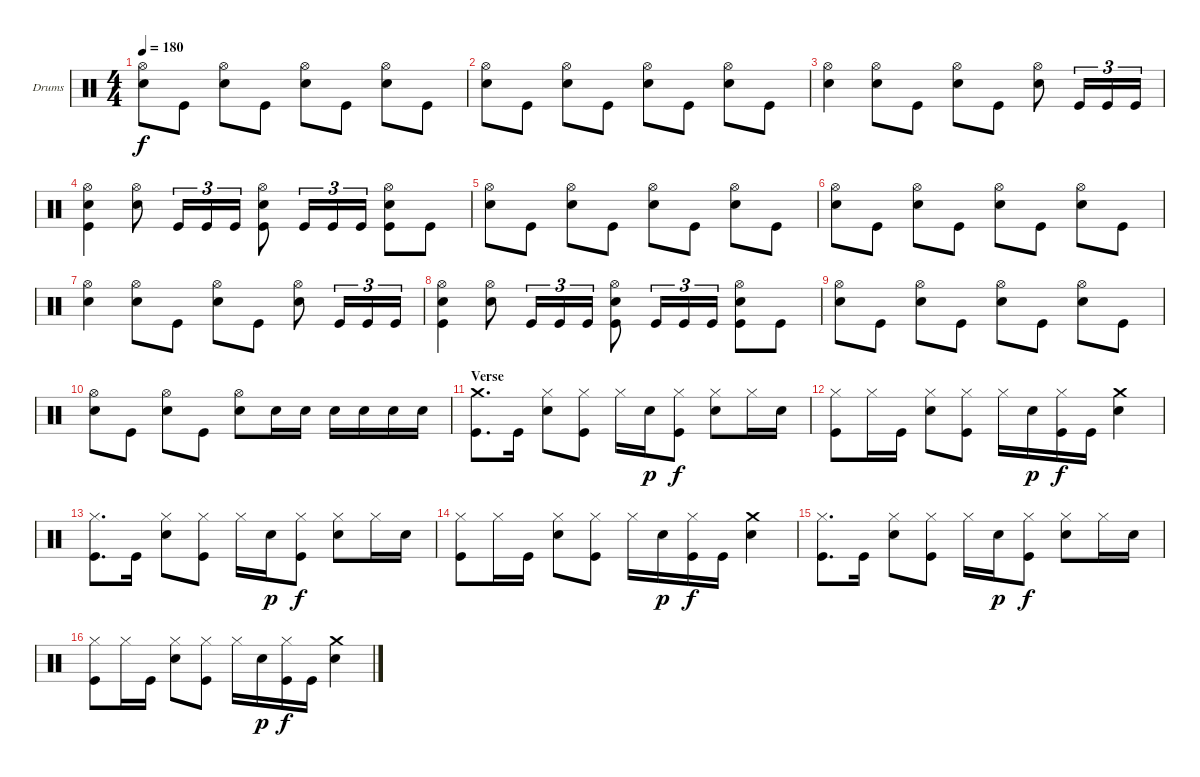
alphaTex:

\bracketExtendMode groupsimilarinstruments
\firstSystemTrackNameOrientation horizontal
\otherSystemsTrackNameOrientation horizontal
\track ("Drumkit" "Drums") {instrument percussion}
\staff {score}
\articulation defaults
\ts (4 4)
\tempo 180
\clef neutral
\ks c
("Hi-Hat (open)" "Snare (hit) 2").8{dy f} "Kick (hit)".8 ("Hi-Hat (open)" "Snare (hit) 2").8 "Kick (hit)".8 ("Hi-Hat (open)" "Snare (hit) 2").8 "Kick (hit)".8 ("Hi-Hat (open)" "Snare (hit) 2").8 "Kick (hit)".8 |
("Hi-Hat (open)" "Snare (hit) 2").8 "Kick (hit)".8 ("Hi-Hat (open)" "Snare (hit) 2").8 "Kick (hit)".8 ("Hi-Hat (open)" "Snare (hit) 2").8 "Kick (hit)".8 ("Hi-Hat (open)" "Snare (hit) 2").8 "Kick (hit)".8 |
("Hi-Hat (open)" "Snare (hit) 2").4 ("Hi-Hat (open)" "Snare (hit) 2").8 "Kick (hit)".8 ("Hi-Hat (open)" "Snare (hit) 2").8 "Kick (hit)".8 ("Hi-Hat (open)" "Snare (hit) 2").8 "Kick (hit)".16{tu (3 2)} "Kick (hit)".16{tu (3 2)} "Kick (hit)".16{tu (3 2)} |
("Hi-Hat (open)" "Snare (hit) 2" "Kick (hit)").4 ("Hi-Hat (open)" "Snare (hit) 2").8 "Kick (hit)".16{tu (3 2)} "Kick (hit)".16{tu (3 2)} "Kick (hit)".16{tu (3 2)} ("Hi-Hat (open)" "Snare (hit) 2" "Kick (hit)").8 "Kick (hit)".16{tu (3 2)} "Kick (hit)".16{tu (3 2)} "Kick (hit)".16{tu (3 2)} ("Hi-Hat (open)" "Snare (hit) 2" "Kick (hit)").8 "Kick (hit)".8 |
("Hi-Hat (open)" "Snare (hit) 2").8 "Kick (hit)".8 ("Hi-Hat (open)" "Snare (hit) 2").8 "Kick (hit)".8 ("Hi-Hat (open)" "Snare (hit) 2").8 "Kick (hit)".8 ("Hi-Hat (open)" "Snare (hit) 2").8 "Kick (hit)".8 |
("Hi-Hat (open)" "Snare (hit) 2").8 "Kick (hit)".8 ("Hi-Hat (open)" "Snare (hit) 2").8 "Kick (hit)".8 ("Hi-Hat (open)" "Snare (hit) 2").8 "Kick (hit)".8 ("Hi-Hat (open)" "Snare (hit) 2").8 "Kick (hit)".8 |
("Hi-Hat (open)" "Snare (hit) 2").4 ("Hi-Hat (open)" "Snare (hit) 2").8 "Kick (hit)".8 ("Hi-Hat (open)" "Snare (hit) 2").8 "Kick (hit)".8 ("Hi-Hat (open)" "Snare (hit) 2").8 "Kick (hit)".16{tu (3 2)} "Kick (hit)".16{tu (3 2)} "Kick (hit)".16{tu (3 2)} |
("Hi-Hat (open)" "Snare (hit) 2" "Kick (hit)").4 ("Hi-Hat (open)" "Snare (hit) 2").8 "Kick (hit)".16{tu (3 2)} "Kick (hit)".16{tu (3 2)} "Kick (hit)".16{tu (3 2)} ("Hi-Hat (open)" "Snare (hit) 2" "Kick (hit)").8 "Kick (hit)".16{tu (3 2)} "Kick (hit)".16{tu (3 2)} "Kick (hit)".16{tu (3 2)} ("Hi-Hat (open)" "Snare (hit) 2" "Kick (hit)").8 "Kick (hit)".8 |
("Hi-Hat (open)" "Snare (hit) 2").8 "Kick (hit)".8 ("Hi-Hat (open)" "Snare (hit) 2").8 "Kick (hit)".8 ("Hi-Hat (open)" "Snare (hit) 2").8 "Kick (hit)".8 ("Hi-Hat (open)" "Snare (hit) 2").8 "Kick (hit)".8 |
("Hi-Hat (open)" "Snare (hit) 2").8 "Kick (hit)".8 ("Hi-Hat (open)" "Snare (hit) 2").8 "Kick (hit)".8 ("Hi-Hat (open)" "Snare (hit) 2").8 "Snare (hit) 2".16 "Snare (hit) 2".16 "Snare (hit) 2".16 "Snare (hit) 2".16 "Snare (hit) 2".16 "Snare (hit) 2".16 |
\section ("" "Verse")
("Crash medium (hit)" "Kick (hit)").8{d} "Kick (hit)".16 ("Hi-Hat (closed)" "Snare (hit) 2").8 ("Hi-Hat (closed)" "Kick (hit)").8 "Hi-Hat (closed)".16 "Snare (hit) 2".16{dy p} ("Hi-Hat (closed)" "Kick (hit)").8{dy f} ("Hi-Hat (closed)" "Snare (hit) 2").8 "Hi-Hat (closed)".16 "Snare (hit) 2".16 |
("Hi-Hat (closed)" "Kick (hit)").8 "Hi-Hat (closed)".16 "Kick (hit)".16 ("Hi-Hat (closed)" "Snare (hit) 2").8 ("Hi-Hat (closed)" "Kick (hit)").8 "Hi-Hat (closed)".16 "Snare (hit) 2".16{dy p} ("Hi-Hat (closed)" "Kick (hit)").16{dy f} "Kick (hit)".16 ("Crash medium (hit)" "Snare (hit) 2").4 |
("Hi-Hat (closed)" "Kick (hit)").8{d} "Kick (hit)".16 ("Hi-Hat (closed)" "Snare (hit) 2").8 ("Hi-Hat (closed)" "Kick (hit)").8 "Hi-Hat (closed)".16 "Snare (hit) 2".16{dy p} ("Hi-Hat (closed)" "Kick (hit)").8{dy f} ("Hi-Hat (closed)" "Snare (hit) 2").8 "Hi-Hat (closed)".16 "Snare (hit) 2".16 |
("Hi-Hat (closed)" "Kick (hit)").8 "Hi-Hat (closed)".16 "Kick (hit)".16 ("Hi-Hat (closed)" "Snare (hit) 2").8 ("Hi-Hat (closed)" "Kick (hit)").8 "Hi-Hat (closed)".16 "Snare (hit) 2".16{dy p} ("Hi-Hat (closed)" "Kick (hit)").16{dy f} "Kick (hit)".16 ("Crash medium (hit)" "Snare (hit) 2").4 |
("Hi-Hat (closed)" "Kick (hit)").8{d} "Kick (hit)".16 ("Hi-Hat (closed)" "Snare (hit) 2").8 ("Hi-Hat (closed)" "Kick (hit)").8 "Hi-Hat (closed)".16 "Snare (hit) 2".16{dy p} ("Hi-Hat (closed)" "Kick (hit)").8{dy f} ("Hi-Hat (closed)" "Snare (hit) 2").8 "Hi-Hat (closed)".16 "Snare (hit) 2".16 |
("Hi-Hat (closed)" "Kick (hit)").8 "Hi-Hat (closed)".16 "Kick (hit)".16 ("Hi-Hat (closed)" "Snare (hit) 2").8 ("Hi-Hat (closed)" "Kick (hit)").8 "Hi-Hat (closed)".16 "Snare (hit) 2".16{dy p} ("Hi-Hat (closed)" "Kick (hit)").16{dy f} "Kick (hit)".16 ("Crash medium (hit)" "Snare (hit) 2").4
